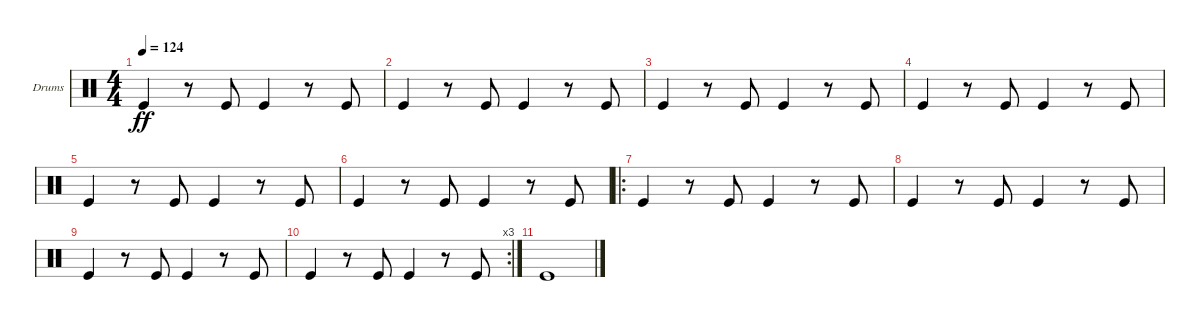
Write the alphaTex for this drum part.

\bracketExtendMode groupsimilarinstruments
\firstSystemTrackNameOrientation horizontal
\otherSystemsTrackNameOrientation horizontal
\track ("Kick Drum" "Drums") {instrument percussion}
\staff {score}
\articulation defaults
\ts (4 4)
\tempo 124
\clef neutral
\scale
0.333333
\ks c "Kick (hit)".4{dy ff}
r.8 "Kick (hit)".8 "Kick (hit)".4 r.8 "Kick (hit)".8 |
\scale
0.333333 "Kick (hit)".4 r.8 "Kick (hit)".8 "Kick (hit)".4 r.8 "Kick (hit)".8 |
\scale
0.333333 "Kick (hit)".4 r.8 "Kick (hit)".8 "Kick (hit)".4 r.8 "Kick (hit)".8 |
\scale
0.333333 "Kick (hit)".4 r.8 "Kick (hit)".8 "Kick (hit)".4 r.8 "Kick (hit)".8 |
\scale
0.311111 "Kick (hit)".4 r.8 "Kick (hit)".8 "Kick (hit)".4 r.8 "Kick (hit)".8 |
\scale
0.311111 "Kick (hit)".4 r.8 "Kick (hit)".8 "Kick (hit)".4 r.8 "Kick (hit)".8 |
\ro
\scale
0.377778 "Kick (hit)".4 r.8 "Kick (hit)".8 "Kick (hit)".4 r.8 "Kick (hit)".8 |
"Kick (hit)".4 r.8 "Kick (hit)".8 "Kick (hit)".4 r.8 "Kick (hit)".8 |
"Kick (hit)".4 r.8 "Kick (hit)".8 "Kick (hit)".4 r.8 "Kick (hit)".8 |
\rc 3 "Kick (hit)".4
r.8 "Kick (hit)".8 "Kick (hit)".4 r.8 "Kick (hit)".8 |
"Kick (hit)".1
